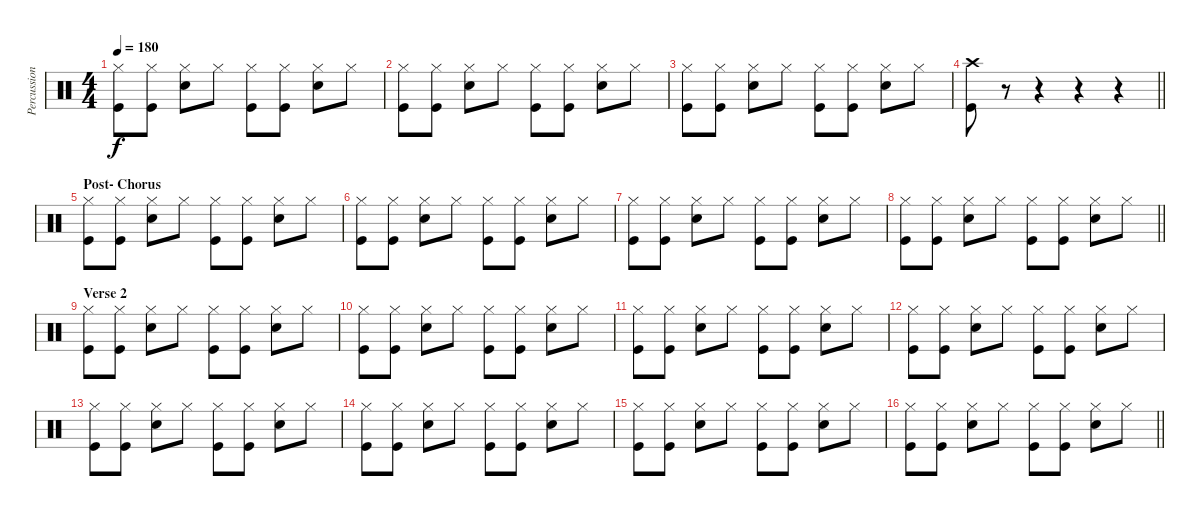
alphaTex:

\track ("Percussion" "Percussion") {instrument percussion}
\staff {score}
\articulation defaults
\ts (4 4)
\tempo 180
\clef neutral
\ks c
("Hi-Hat (closed)" "Kick (hit)").8{dy f} ("Hi-Hat (closed)" "Kick (hit)").8 ("Hi-Hat (closed)" "Snare (hit) 2").8 "Hi-Hat (closed)".8 ("Hi-Hat (closed)" "Kick (hit)").8 ("Hi-Hat (closed)" "Kick (hit)").8 ("Hi-Hat (closed)" "Snare (hit) 2").8 "Hi-Hat (closed)".8 |
("Hi-Hat (closed)" "Kick (hit)").8 ("Hi-Hat (closed)" "Kick (hit)").8 ("Hi-Hat (closed)" "Snare (hit) 2").8 "Hi-Hat (closed)".8 ("Hi-Hat (closed)" "Kick (hit)").8 ("Hi-Hat (closed)" "Kick (hit)").8 ("Hi-Hat (closed)" "Snare (hit) 2").8 "Hi-Hat (closed)".8 |
("Hi-Hat (closed)" "Kick (hit)").8 ("Hi-Hat (closed)" "Kick (hit)").8 ("Hi-Hat (closed)" "Snare (hit) 2").8 "Hi-Hat (closed)".8 ("Hi-Hat (closed)" "Kick (hit)").8 ("Hi-Hat (closed)" "Kick (hit)").8 ("Hi-Hat (closed)" "Snare (hit) 2").8 "Hi-Hat (closed)".8 |
\barLineRight lightlight
("Crash high (hit)" "Kick (hit)").8 r.8 r.4 r.4 r.4 |
\section ("" "Post- Chorus")
("Hi-Hat (closed)" "Kick (hit)").8 ("Hi-Hat (closed)" "Kick (hit)").8 ("Hi-Hat (closed)" "Snare (hit) 2").8 "Hi-Hat (closed)".8 ("Hi-Hat (closed)" "Kick (hit)").8 ("Hi-Hat (closed)" "Kick (hit)").8 ("Hi-Hat (closed)" "Snare (hit) 2").8 "Hi-Hat (closed)".8 |
("Hi-Hat (closed)" "Kick (hit)").8 ("Hi-Hat (closed)" "Kick (hit)").8 ("Hi-Hat (closed)" "Snare (hit) 2").8 "Hi-Hat (closed)".8 ("Hi-Hat (closed)" "Kick (hit)").8 ("Hi-Hat (closed)" "Kick (hit)").8 ("Hi-Hat (closed)" "Snare (hit) 2").8 "Hi-Hat (closed)".8 |
("Hi-Hat (closed)" "Kick (hit)").8 ("Hi-Hat (closed)" "Kick (hit)").8 ("Hi-Hat (closed)" "Snare (hit) 2").8 "Hi-Hat (closed)".8 ("Hi-Hat (closed)" "Kick (hit)").8 ("Hi-Hat (closed)" "Kick (hit)").8 ("Hi-Hat (closed)" "Snare (hit) 2").8 "Hi-Hat (closed)".8 |
\barLineRight lightlight
("Hi-Hat (closed)" "Kick (hit)").8 ("Hi-Hat (closed)" "Kick (hit)").8 ("Hi-Hat (closed)" "Snare (hit) 2").8 "Hi-Hat (closed)".8 ("Hi-Hat (closed)" "Kick (hit)").8 ("Hi-Hat (closed)" "Kick (hit)").8 ("Hi-Hat (closed)" "Snare (hit) 2").8 "Hi-Hat (closed)".8 |
\section ("" "Verse 2")
("Hi-Hat (closed)" "Kick (hit)").8 ("Hi-Hat (closed)" "Kick (hit)").8 ("Hi-Hat (closed)" "Snare (hit) 2").8 "Hi-Hat (closed)".8 ("Hi-Hat (closed)" "Kick (hit)").8 ("Hi-Hat (closed)" "Kick (hit)").8 ("Hi-Hat (closed)" "Snare (hit) 2").8 "Hi-Hat (closed)".8 |
("Hi-Hat (closed)" "Kick (hit)").8 ("Hi-Hat (closed)" "Kick (hit)").8 ("Hi-Hat (closed)" "Snare (hit) 2").8 "Hi-Hat (closed)".8 ("Hi-Hat (closed)" "Kick (hit)").8 ("Hi-Hat (closed)" "Kick (hit)").8 ("Hi-Hat (closed)" "Snare (hit) 2").8 "Hi-Hat (closed)".8 |
("Hi-Hat (closed)" "Kick (hit)").8 ("Hi-Hat (closed)" "Kick (hit)").8 ("Hi-Hat (closed)" "Snare (hit) 2").8 "Hi-Hat (closed)".8 ("Hi-Hat (closed)" "Kick (hit)").8 ("Hi-Hat (closed)" "Kick (hit)").8 ("Hi-Hat (closed)" "Snare (hit) 2").8 "Hi-Hat (closed)".8 |
("Hi-Hat (closed)" "Kick (hit)").8 ("Hi-Hat (closed)" "Kick (hit)").8 ("Hi-Hat (closed)" "Snare (hit) 2").8 "Hi-Hat (closed)".8 ("Hi-Hat (closed)" "Kick (hit)").8 ("Hi-Hat (closed)" "Kick (hit)").8 ("Hi-Hat (closed)" "Snare (hit) 2").8 "Hi-Hat (closed)".8 |
("Hi-Hat (closed)" "Kick (hit)").8 ("Hi-Hat (closed)" "Kick (hit)").8 ("Hi-Hat (closed)" "Snare (hit) 2").8 "Hi-Hat (closed)".8 ("Hi-Hat (closed)" "Kick (hit)").8 ("Hi-Hat (closed)" "Kick (hit)").8 ("Hi-Hat (closed)" "Snare (hit) 2").8 "Hi-Hat (closed)".8 |
("Hi-Hat (closed)" "Kick (hit)").8 ("Hi-Hat (closed)" "Kick (hit)").8 ("Hi-Hat (closed)" "Snare (hit) 2").8 "Hi-Hat (closed)".8 ("Hi-Hat (closed)" "Kick (hit)").8 ("Hi-Hat (closed)" "Kick (hit)").8 ("Hi-Hat (closed)" "Snare (hit) 2").8 "Hi-Hat (closed)".8 |
("Hi-Hat (closed)" "Kick (hit)").8 ("Hi-Hat (closed)" "Kick (hit)").8 ("Hi-Hat (closed)" "Snare (hit) 2").8 "Hi-Hat (closed)".8 ("Hi-Hat (closed)" "Kick (hit)").8 ("Hi-Hat (closed)" "Kick (hit)").8 ("Hi-Hat (closed)" "Snare (hit) 2").8 "Hi-Hat (closed)".8 |
\barLineRight lightlight
("Hi-Hat (closed)" "Kick (hit)").8 ("Hi-Hat (closed)" "Kick (hit)").8 ("Hi-Hat (closed)" "Snare (hit) 2").8 "Hi-Hat (closed)".8 ("Hi-Hat (closed)" "Kick (hit)").8 ("Hi-Hat (closed)" "Kick (hit)").8 ("Hi-Hat (closed)" "Snare (hit) 2").8 "Hi-Hat (closed)".8
